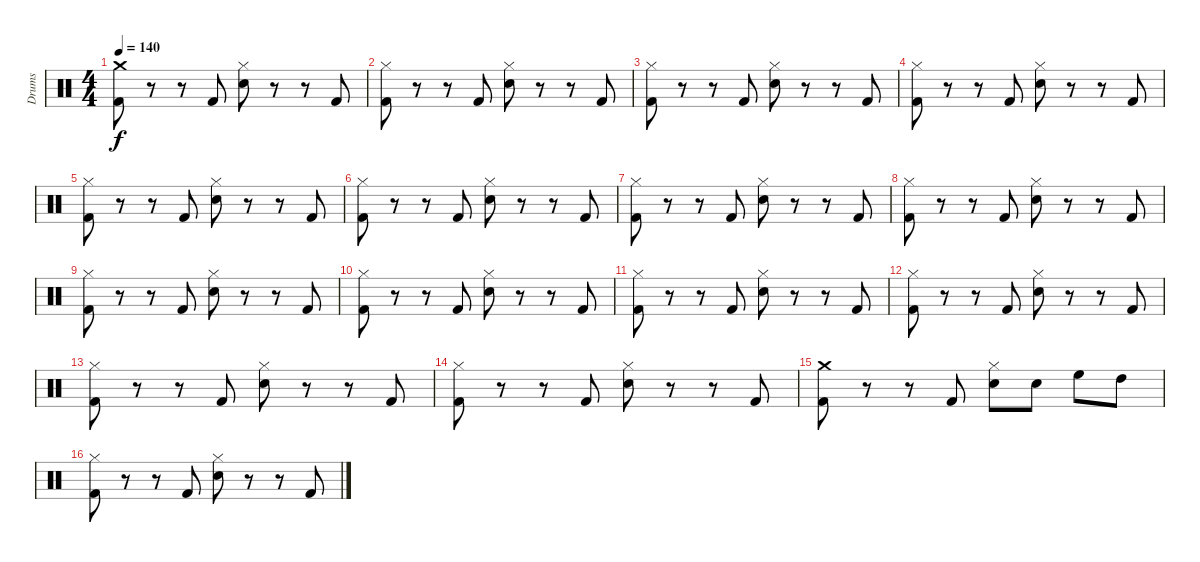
\track ("Drums" "Drums") {instrument percussion}
\staff {score}
\articulation defaults
\ts (4 4)
\tempo 140
\clef neutral
\ks c
("Crash medium (hit)" "Kick (hit) 2").8{dy f} r.8 r.8 "Kick (hit) 2".8 ("Hi-Hat (closed)" "Snare (hit) 2").8 r.8 r.8 "Kick (hit) 2".8 |
("Hi-Hat (closed)" "Kick (hit) 2").8 r.8 r.8 "Kick (hit) 2".8 ("Hi-Hat (closed)" "Snare (hit) 2").8 r.8 r.8 "Kick (hit) 2".8 |
("Hi-Hat (closed)" "Kick (hit) 2").8 r.8 r.8 "Kick (hit) 2".8 ("Hi-Hat (closed)" "Snare (hit) 2").8 r.8 r.8 "Kick (hit) 2".8 |
("Hi-Hat (closed)" "Kick (hit) 2").8 r.8 r.8 "Kick (hit) 2".8 ("Hi-Hat (closed)" "Snare (hit) 2").8 r.8 r.8 "Kick (hit) 2".8 |
("Hi-Hat (closed)" "Kick (hit) 2").8 r.8 r.8 "Kick (hit) 2".8 ("Hi-Hat (closed)" "Snare (hit) 2").8 r.8 r.8 "Kick (hit) 2".8 |
("Hi-Hat (closed)" "Kick (hit) 2").8 r.8 r.8 "Kick (hit) 2".8 ("Hi-Hat (closed)" "Snare (hit) 2").8 r.8 r.8 "Kick (hit) 2".8 |
("Hi-Hat (closed)" "Kick (hit) 2").8 r.8 r.8 "Kick (hit) 2".8 ("Hi-Hat (closed)" "Snare (hit) 2").8 r.8 r.8 "Kick (hit) 2".8 |
("Hi-Hat (closed)" "Kick (hit) 2").8 r.8 r.8 "Kick (hit) 2".8 ("Hi-Hat (closed)" "Snare (hit) 2").8 r.8 r.8 "Kick (hit) 2".8 |
("Hi-Hat (closed)" "Kick (hit) 2").8 r.8 r.8 "Kick (hit) 2".8 ("Hi-Hat (closed)" "Snare (hit) 2").8 r.8 r.8 "Kick (hit) 2".8 |
("Hi-Hat (closed)" "Kick (hit) 2").8 r.8 r.8 "Kick (hit) 2".8 ("Hi-Hat (closed)" "Snare (hit) 2").8 r.8 r.8 "Kick (hit) 2".8 |
("Hi-Hat (closed)" "Kick (hit) 2").8 r.8 r.8 "Kick (hit) 2".8 ("Hi-Hat (closed)" "Snare (hit) 2").8 r.8 r.8 "Kick (hit) 2".8 |
("Hi-Hat (closed)" "Kick (hit) 2").8 r.8 r.8 "Kick (hit) 2".8 ("Hi-Hat (closed)" "Snare (hit) 2").8 r.8 r.8 "Kick (hit) 2".8 |
("Hi-Hat (closed)" "Kick (hit) 2").8 r.8 r.8 "Kick (hit) 2".8 ("Hi-Hat (closed)" "Snare (hit) 2").8 r.8 r.8 "Kick (hit) 2".8 |
("Hi-Hat (closed)" "Kick (hit) 2").8 r.8 r.8 "Kick (hit) 2".8 ("Hi-Hat (closed)" "Snare (hit) 2").8 r.8 r.8 "Kick (hit) 2".8 |
("Crash medium (hit)" "Kick (hit) 2").8 r.8 r.8 "Kick (hit) 2".8 ("Hi-Hat (closed)" "Snare (hit) 2").8 "Electric Snare (hit)".8 "High Floor Tom (hit)".8 "High Tom (hit)".8 |
("Hi-Hat (closed)" "Kick (hit) 2").8 r.8 r.8 "Kick (hit) 2".8 ("Hi-Hat (closed)" "Snare (hit) 2").8 r.8 r.8 "Kick (hit) 2".8
